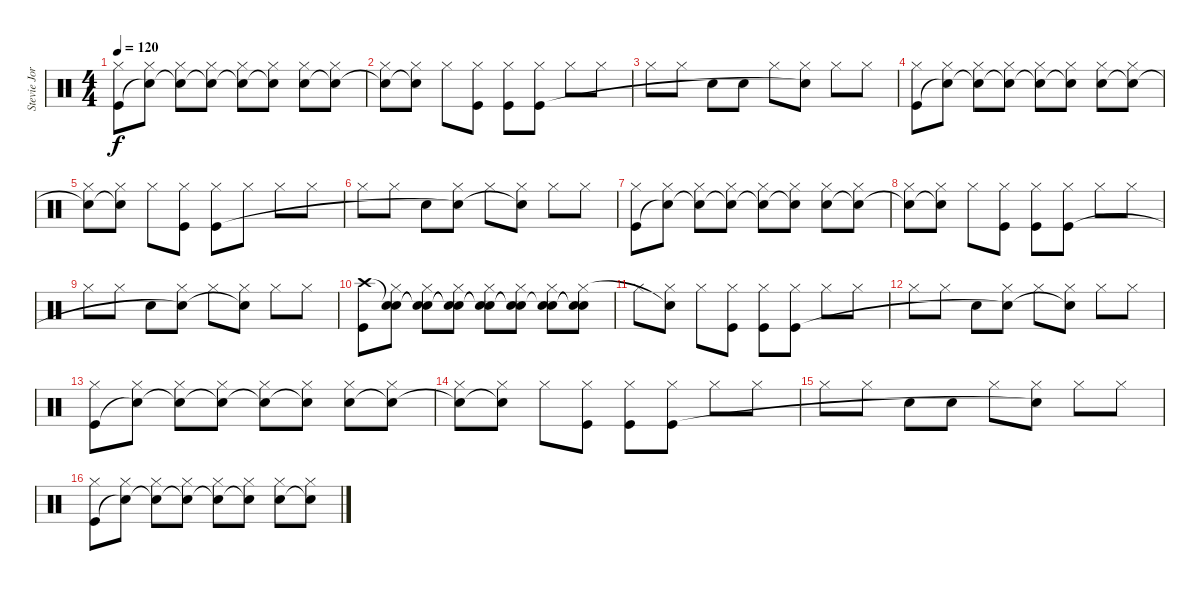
\track ("Stevie Jordan" "Stevie Jor") {instrument percussion}
\staff {score}
\articulation defaults
\ts (4 4)
\tempo 120
\clef neutral
\ks c
("Hi-Hat (closed)" "Kick (hit)").8{dy f} ("Hi-Hat (closed)" "Snare (hit)"{t}).8 ("Hi-Hat (closed)" "Snare (hit)"{t}).8 ("Hi-Hat (closed)" "Snare (hit)"{t}).8 ("Hi-Hat (closed)" "Snare (hit)"{t}).8 ("Hi-Hat (closed)" "Snare (hit)"{t}).8 ("Hi-Hat (closed)" "Snare (hit) 2").8 ("Hi-Hat (closed)" "Snare (hit)"{t}).8 |
("Hi-Hat (closed)" "Snare (hit)"{t}).8 ("Hi-Hat (closed)" "Snare (hit)"{t}).8 "Hi-Hat (closed)".8 ("Hi-Hat (closed)" "Kick (hit)").8 ("Hi-Hat (closed)" "Kick (hit)").8 ("Hi-Hat (closed)" "Kick (hit)").8 "Hi-Hat (closed)".8 "Hi-Hat (closed)".8 |
"Hi-Hat (closed)".8 "Hi-Hat (closed)".8 "Snare (hit) 2".8 "Snare (hit) 2".8 "Hi-Hat (closed)".8 ("Hi-Hat (closed)" "Snare (hit)"{t}).8 "Hi-Hat (closed)".8 "Hi-Hat (closed)".8 |
("Hi-Hat (closed)" "Kick (hit)").8 ("Hi-Hat (closed)" "Snare (hit)"{t}).8 ("Hi-Hat (closed)" "Snare (hit)"{t}).8 ("Hi-Hat (closed)" "Snare (hit)"{t}).8 ("Hi-Hat (closed)" "Snare (hit)"{t}).8 ("Hi-Hat (closed)" "Snare (hit)"{t}).8 ("Hi-Hat (closed)" "Snare (hit) 2").8 ("Hi-Hat (closed)" "Snare (hit)"{t}).8 |
("Hi-Hat (closed)" "Snare (hit)"{t}).8 ("Hi-Hat (closed)" "Snare (hit)"{t}).8 "Hi-Hat (closed)".8 ("Hi-Hat (closed)" "Kick (hit)").8 ("Hi-Hat (closed)" "Kick (hit)").8 "Hi-Hat (closed)".8 "Hi-Hat (closed)".8 "Hi-Hat (closed)".8 |
"Hi-Hat (closed)".8 "Hi-Hat (closed)".8 "Snare (hit) 2".8 ("Hi-Hat (closed)" "Snare (hit)"{t}).8 "Hi-Hat (closed)".8 ("Hi-Hat (closed)" "Snare (hit)"{t}).8 "Hi-Hat (closed)".8 "Hi-Hat (closed)".8 |
("Hi-Hat (closed)" "Kick (hit)").8 ("Hi-Hat (closed)" "Snare (hit)"{t}).8 ("Hi-Hat (closed)" "Snare (hit)"{t}).8 ("Hi-Hat (closed)" "Snare (hit)"{t}).8 ("Hi-Hat (closed)" "Snare (hit)"{t}).8 ("Hi-Hat (closed)" "Snare (hit)"{t}).8 ("Hi-Hat (closed)" "Snare (hit) 2").8 ("Hi-Hat (closed)" "Snare (hit)"{t}).8 |
("Hi-Hat (closed)" "Snare (hit)"{t}).8 ("Hi-Hat (closed)" "Snare (hit)"{t}).8 "Hi-Hat (closed)".8 ("Hi-Hat (closed)" "Kick (hit)").8 ("Hi-Hat (closed)" "Kick (hit)").8 ("Hi-Hat (closed)" "Kick (hit)").8 "Hi-Hat (closed)".8 "Hi-Hat (closed)".8 |
"Hi-Hat (closed)".8 "Hi-Hat (closed)".8 "Snare (hit) 2".8 ("Hi-Hat (closed)" "Snare (hit)"{t}).8 "Hi-Hat (closed)".8 ("Hi-Hat (closed)" "Snare (hit)"{t}).8 "Hi-Hat (closed)".8 "Hi-Hat (closed)".8 |
("Crash high (hit)" "Kick (hit)").8 ("Snare (hit)"{t} "Hi-Hat (closed)" "Snare (hit)").8 ("Snare (hit)"{t} "Hi-Hat (closed)" "Snare (hit)"{t}).8 ("Snare (hit)"{t} "Hi-Hat (closed)" "Snare (hit)"{t}).8 ("Snare (hit)"{t} "Hi-Hat (closed)" "Snare (hit)"{t}).8 ("Snare (hit)"{t} "Hi-Hat (closed)" "Snare (hit)"{t}).8 ("Snare (hit)"{t} "Hi-Hat (closed)" "Snare (hit) 2").8 ("Snare (hit)"{t} "Hi-Hat (closed)" "Snare (hit)"{t}).8 |
"Hi-Hat (closed)".8 ("Hi-Hat (closed)" "Snare (hit)"{t}).8 "Hi-Hat (closed)".8 ("Hi-Hat (closed)" "Kick (hit)").8 ("Hi-Hat (closed)" "Kick (hit)").8 ("Hi-Hat (closed)" "Kick (hit)").8 "Hi-Hat (closed)".8 "Hi-Hat (closed)".8 |
"Hi-Hat (closed)".8 "Hi-Hat (closed)".8 "Snare (hit) 2".8 ("Hi-Hat (closed)" "Snare (hit)"{t}).8 "Hi-Hat (closed)".8 ("Hi-Hat (closed)" "Snare (hit)"{t}).8 "Hi-Hat (closed)".8 "Hi-Hat (closed)".8 |
("Hi-Hat (closed)" "Kick (hit)").8 ("Hi-Hat (closed)" "Snare (hit)"{t}).8 ("Hi-Hat (closed)" "Snare (hit)"{t}).8 ("Hi-Hat (closed)" "Snare (hit)"{t}).8 ("Hi-Hat (closed)" "Snare (hit)"{t}).8 ("Hi-Hat (closed)" "Snare (hit)"{t}).8 ("Hi-Hat (closed)" "Snare (hit) 2").8 ("Hi-Hat (closed)" "Snare (hit)"{t}).8 |
("Hi-Hat (closed)" "Snare (hit)"{t}).8 ("Hi-Hat (closed)" "Snare (hit)"{t}).8 "Hi-Hat (closed)".8 ("Hi-Hat (closed)" "Kick (hit)").8 ("Hi-Hat (closed)" "Kick (hit)").8 ("Hi-Hat (closed)" "Kick (hit)").8 "Hi-Hat (closed)".8 "Hi-Hat (closed)".8 |
"Hi-Hat (closed)".8 "Hi-Hat (closed)".8 "Snare (hit) 2".8 "Snare (hit) 2".8 "Hi-Hat (closed)".8 ("Hi-Hat (closed)" "Snare (hit)"{t}).8 "Hi-Hat (closed)".8 "Hi-Hat (closed)".8 |
("Hi-Hat (closed)" "Kick (hit)").8 ("Hi-Hat (closed)" "Snare (hit)"{t}).8 ("Hi-Hat (closed)" "Snare (hit)"{t}).8 ("Hi-Hat (closed)" "Snare (hit)"{t}).8 ("Hi-Hat (closed)" "Snare (hit)"{t}).8 ("Hi-Hat (closed)" "Snare (hit)"{t}).8 ("Hi-Hat (closed)" "Snare (hit) 2").8 ("Hi-Hat (closed)" "Snare (hit)"{t}).8
